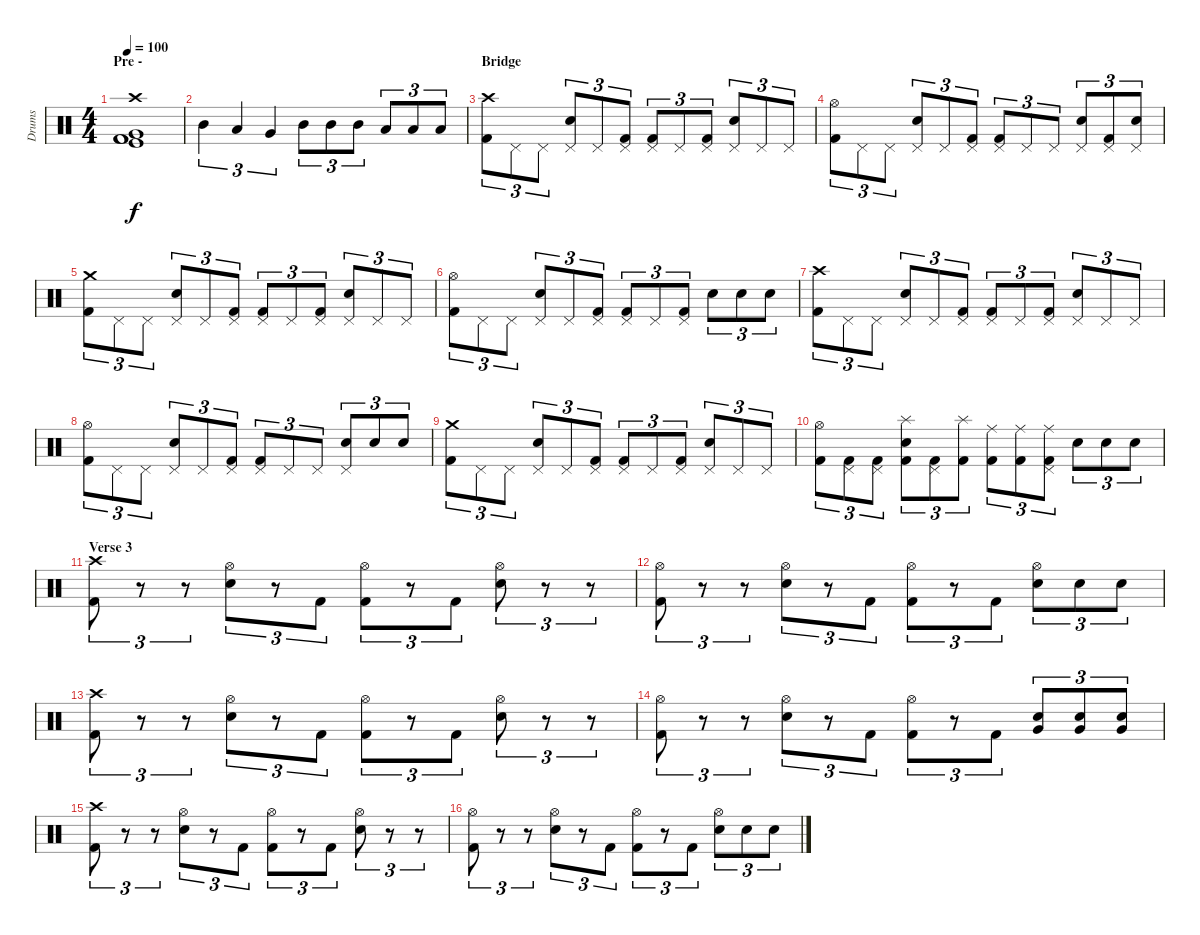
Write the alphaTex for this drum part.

\track ("Drums" "Drums") {instrument percussion}
\staff {score}
\articulation defaults
\ts (4 4)
\section ("" "Pre - ")
\tempo 100
\clef neutral
\ks c
("Crash high (hit)" "Very Low Tom (hit)" "Kick (hit)" "Kick (hit) 2" "Kick (hit) 2").1{dy f} |
"Mid Tom (hit)".4{tu (3 2)} "Low Tom (hit)".4{tu (3 2)} "Very Low Tom (hit)".4{tu (3 2)} "Mid Tom (hit)".8{tu (3 2)} "Mid Tom (hit)".8{tu (3 2)} "Mid Tom (hit)".8{tu (3 2)} "Low Tom (hit)".8{tu (3 2)} "Low Tom (hit)".8{tu (3 2)} "Low Tom (hit)".8{tu (3 2)} |
\section ("" "Bridge")
("Crash high (hit)" "Kick (hit) 2").8{tu (3 2)} "Pedal Hi-Hat (hit)".8{tu (3 2)} "Pedal Hi-Hat (hit)".8{tu (3 2)} ("Pedal Hi-Hat (hit)" "Electric Snare (hit)").8{tu (3 2)} "Pedal Hi-Hat (hit)".8{tu (3 2)} ("Pedal Hi-Hat (hit)" "Kick (hit) 2").8{tu (3 2)} ("Pedal Hi-Hat (hit)" "Kick (hit) 2").8{tu (3 2)} "Pedal Hi-Hat (hit)".8{tu (3 2)} ("Pedal Hi-Hat (hit)" "Kick (hit) 2").8{tu (3 2)} ("Pedal Hi-Hat (hit)" "Electric Snare (hit)").8{tu (3 2)} "Pedal Hi-Hat (hit)".8{tu (3 2)} "Pedal Hi-Hat (hit)".8{tu (3 2)} |
("Hi-Hat (open)" "Kick (hit) 2").8{tu (3 2)} "Pedal Hi-Hat (hit)".8{tu (3 2)} "Pedal Hi-Hat (hit)".8{tu (3 2)} ("Pedal Hi-Hat (hit)" "Electric Snare (hit)").8{tu (3 2)} "Pedal Hi-Hat (hit)".8{tu (3 2)} ("Pedal Hi-Hat (hit)" "Kick (hit) 2").8{tu (3 2)} ("Pedal Hi-Hat (hit)" "Kick (hit) 2").8{tu (3 2)} "Pedal Hi-Hat (hit)".8{tu (3 2)} "Pedal Hi-Hat (hit)".8{tu (3 2)} ("Pedal Hi-Hat (hit)" "Electric Snare (hit)").8{tu (3 2)} ("Pedal Hi-Hat (hit)" "Kick (hit) 2").8{tu (3 2)} ("Pedal Hi-Hat (hit)" "Electric Snare (hit)").8{tu (3 2)} |
("Crash medium (hit)" "Kick (hit) 2").8{tu (3 2)} "Pedal Hi-Hat (hit)".8{tu (3 2)} "Pedal Hi-Hat (hit)".8{tu (3 2)} ("Pedal Hi-Hat (hit)" "Electric Snare (hit)").8{tu (3 2)} "Pedal Hi-Hat (hit)".8{tu (3 2)} ("Pedal Hi-Hat (hit)" "Kick (hit) 2").8{tu (3 2)} ("Pedal Hi-Hat (hit)" "Kick (hit) 2").8{tu (3 2)} "Pedal Hi-Hat (hit)".8{tu (3 2)} ("Pedal Hi-Hat (hit)" "Kick (hit) 2").8{tu (3 2)} ("Pedal Hi-Hat (hit)" "Electric Snare (hit)").8{tu (3 2)} "Pedal Hi-Hat (hit)".8{tu (3 2)} "Pedal Hi-Hat (hit)".8{tu (3 2)} |
("Hi-Hat (open)" "Kick (hit) 2").8{tu (3 2)} "Pedal Hi-Hat (hit)".8{tu (3 2)} "Pedal Hi-Hat (hit)".8{tu (3 2)} ("Pedal Hi-Hat (hit)" "Electric Snare (hit)").8{tu (3 2)} "Pedal Hi-Hat (hit)".8{tu (3 2)} ("Pedal Hi-Hat (hit)" "Kick (hit) 2").8{tu (3 2)} ("Pedal Hi-Hat (hit)" "Kick (hit) 2").8{tu (3 2)} "Pedal Hi-Hat (hit)".8{tu (3 2)} ("Pedal Hi-Hat (hit)" "Kick (hit) 2").8{tu (3 2)} "Snare (hit) 2".8{tu (3 2)} "Snare (hit) 2".8{tu (3 2)} "Snare (hit) 2".8{tu (3 2)} |
("Crash high (hit)" "Kick (hit) 2").8{tu (3 2)} "Pedal Hi-Hat (hit)".8{tu (3 2)} "Pedal Hi-Hat (hit)".8{tu (3 2)} ("Pedal Hi-Hat (hit)" "Electric Snare (hit)").8{tu (3 2)} "Pedal Hi-Hat (hit)".8{tu (3 2)} ("Pedal Hi-Hat (hit)" "Kick (hit) 2").8{tu (3 2)} ("Pedal Hi-Hat (hit)" "Kick (hit) 2").8{tu (3 2)} "Pedal Hi-Hat (hit)".8{tu (3 2)} ("Pedal Hi-Hat (hit)" "Kick (hit) 2").8{tu (3 2)} ("Pedal Hi-Hat (hit)" "Electric Snare (hit)").8{tu (3 2)} "Pedal Hi-Hat (hit)".8{tu (3 2)} "Pedal Hi-Hat (hit)".8{tu (3 2)} |
("Hi-Hat (open)" "Kick (hit) 2").8{tu (3 2)} "Pedal Hi-Hat (hit)".8{tu (3 2)} "Pedal Hi-Hat (hit)".8{tu (3 2)} ("Pedal Hi-Hat (hit)" "Electric Snare (hit)").8{tu (3 2)} "Pedal Hi-Hat (hit)".8{tu (3 2)} ("Pedal Hi-Hat (hit)" "Kick (hit) 2").8{tu (3 2)} ("Pedal Hi-Hat (hit)" "Kick (hit) 2").8{tu (3 2)} "Pedal Hi-Hat (hit)".8{tu (3 2)} "Pedal Hi-Hat (hit)".8{tu (3 2)} ("Pedal Hi-Hat (hit)" "Electric Snare (hit)").8{tu (3 2)} "Snare (hit) 2".8{tu (3 2)} "Snare (hit) 2".8{tu (3 2)} |
("Crash medium (hit)" "Kick (hit) 2").8{tu (3 2)} "Pedal Hi-Hat (hit)".8{tu (3 2)} "Pedal Hi-Hat (hit)".8{tu (3 2)} ("Pedal Hi-Hat (hit)" "Electric Snare (hit)").8{tu (3 2)} "Pedal Hi-Hat (hit)".8{tu (3 2)} ("Pedal Hi-Hat (hit)" "Kick (hit) 2").8{tu (3 2)} ("Pedal Hi-Hat (hit)" "Kick (hit) 2").8{tu (3 2)} "Pedal Hi-Hat (hit)".8{tu (3 2)} ("Pedal Hi-Hat (hit)" "Kick (hit) 2").8{tu (3 2)} ("Pedal Hi-Hat (hit)" "Electric Snare (hit)").8{tu (3 2)} "Pedal Hi-Hat (hit)".8{tu (3 2)} "Pedal Hi-Hat (hit)".8{tu (3 2)} |
("Hi-Hat (open)" "Kick (hit) 2").8{tu (3 2)} ("Pedal Hi-Hat (hit)" "Kick (hit) 2").8{tu (3 2)} ("Pedal Hi-Hat (hit)" "Kick (hit) 2").8{tu (3 2)} ("Splash (hit)" "Electric Snare (hit)" "Kick (hit) 2").8{tu (3 2)} ("Pedal Hi-Hat (hit)" "Kick (hit) 2").8{tu (3 2)} ("Splash (hit)" "Kick (hit) 2").8{tu (3 2)} ("Ride (middle)" "Kick (hit) 2").8{tu (3 2)} ("Ride (middle)" "Kick (hit) 2").8{tu (3 2)} ("Ride (middle)" "Pedal Hi-Hat (hit)" "Kick (hit) 2").8{tu (3 2)} "Snare (hit) 2".8{tu (3 2)} "Snare (hit) 2".8{tu (3 2)} "Snare (hit) 2".8{tu (3 2)} |
\section ("" "Verse 3")
("Crash high (hit)" "Kick (hit) 2").8{tu (3 2)} r.8{tu (3 2)} r.8{tu (3 2)} ("Hi-Hat (open)" "Electric Snare (hit)").8{tu (3 2)} r.8{tu (3 2)} "Kick (hit) 2".8{tu (3 2)} ("Hi-Hat (open)" "Kick (hit) 2").8{tu (3 2)} r.8{tu (3 2)} "Kick (hit) 2".8{tu (3 2)} ("Hi-Hat (open)" "Electric Snare (hit)").8{tu (3 2)} r.8{tu (3 2)} r.8{tu (3 2)} |
("Hi-Hat (open)" "Kick (hit) 2").8{tu (3 2)} r.8{tu (3 2)} r.8{tu (3 2)} ("Hi-Hat (open)" "Electric Snare (hit)").8{tu (3 2)} r.8{tu (3 2)} "Kick (hit) 2".8{tu (3 2)} ("Hi-Hat (open)" "Kick (hit) 2").8{tu (3 2)} r.8{tu (3 2)} "Kick (hit) 2".8{tu (3 2)} ("Hi-Hat (open)" "Snare (hit) 2").8{tu (3 2)} "Snare (hit) 2".8{tu (3 2)} "Snare (hit) 2".8{tu (3 2)} |
("Crash high (hit)" "Kick (hit) 2").8{tu (3 2)} r.8{tu (3 2)} r.8{tu (3 2)} ("Hi-Hat (open)" "Electric Snare (hit)").8{tu (3 2)} r.8{tu (3 2)} "Kick (hit) 2".8{tu (3 2)} ("Hi-Hat (open)" "Kick (hit) 2").8{tu (3 2)} r.8{tu (3 2)} "Kick (hit) 2".8{tu (3 2)} ("Hi-Hat (open)" "Electric Snare (hit)").8{tu (3 2)} r.8{tu (3 2)} r.8{tu (3 2)} |
("Hi-Hat (open)" "Kick (hit) 2").8{tu (3 2)} r.8{tu (3 2)} r.8{tu (3 2)} ("Hi-Hat (open)" "Electric Snare (hit)").8{tu (3 2)} r.8{tu (3 2)} "Kick (hit) 2".8{tu (3 2)} ("Hi-Hat (open)" "Kick (hit) 2").8{tu (3 2)} r.8{tu (3 2)} "Kick (hit) 2".8{tu (3 2)} ("Very Low Tom (hit)" "Snare (hit) 2").8{tu (3 2)} ("Very Low Tom (hit)" "Snare (hit) 2").8{tu (3 2)} ("Very Low Tom (hit)" "Snare (hit) 2").8{tu (3 2)} |
("Crash high (hit)" "Kick (hit) 2").8{tu (3 2)} r.8{tu (3 2)} r.8{tu (3 2)} ("Hi-Hat (open)" "Electric Snare (hit)").8{tu (3 2)} r.8{tu (3 2)} "Kick (hit) 2".8{tu (3 2)} ("Hi-Hat (open)" "Kick (hit) 2").8{tu (3 2)} r.8{tu (3 2)} "Kick (hit) 2".8{tu (3 2)} ("Hi-Hat (open)" "Electric Snare (hit)").8{tu (3 2)} r.8{tu (3 2)} r.8{tu (3 2)} |
("Hi-Hat (open)" "Kick (hit) 2").8{tu (3 2)} r.8{tu (3 2)} r.8{tu (3 2)} ("Hi-Hat (open)" "Electric Snare (hit)").8{tu (3 2)} r.8{tu (3 2)} "Kick (hit) 2".8{tu (3 2)} ("Hi-Hat (open)" "Kick (hit) 2").8{tu (3 2)} r.8{tu (3 2)} "Kick (hit) 2".8{tu (3 2)} ("Hi-Hat (open)" "Snare (hit) 2").8{tu (3 2)} "Snare (hit) 2".8{tu (3 2)} "Snare (hit) 2".8{tu (3 2)}
